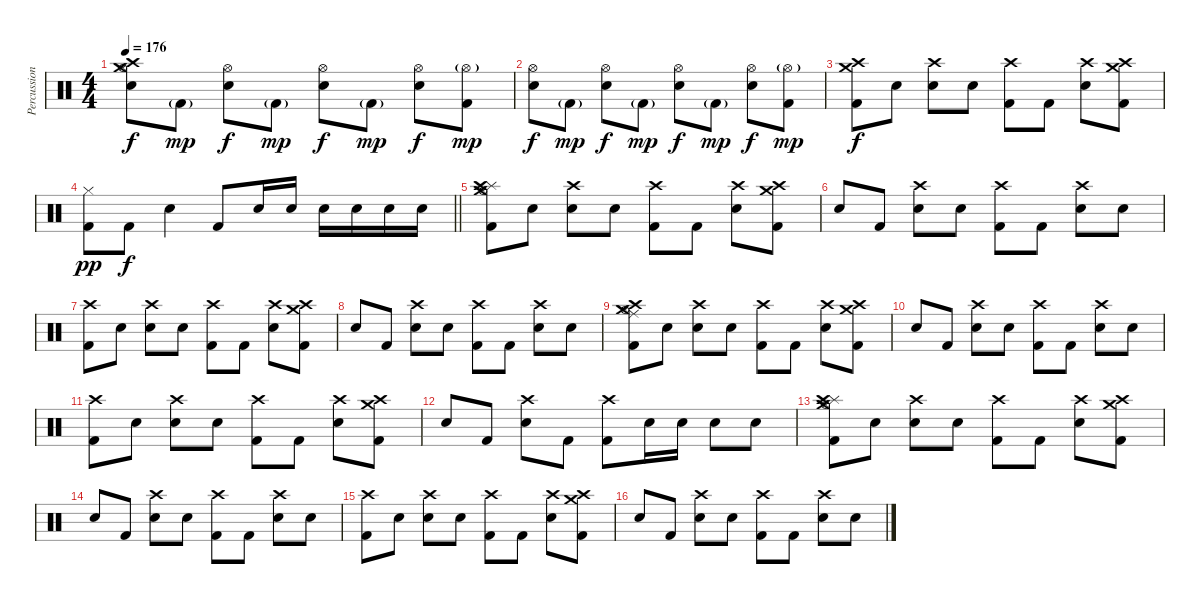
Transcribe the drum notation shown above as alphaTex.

\track ("Percussion" "Percussion") {instrument percussion}
\staff {score}
\articulation defaults
\ts (4 4)
\tempo 176
\clef neutral
\ks c
("Crash medium (hit)" "Crash high (hit)" "Hi-Hat (open)" "Electric Snare (hit)").8{dy f} "Kick (hit) 2"{g}.8{dy mp} ("Hi-Hat (open)" "Electric Snare (hit)").8{dy f} "Kick (hit) 2"{g}.8{dy mp} ("Hi-Hat (open)" "Electric Snare (hit)").8{dy f} "Kick (hit) 2"{g}.8{dy mp} ("Hi-Hat (open)" "Electric Snare (hit)").8{dy f} ("Hi-Hat (open)"{g} "Kick (hit) 2").8{dy mp} |
("Hi-Hat (open)" "Electric Snare (hit)").8{dy f} "Kick (hit) 2"{g}.8{dy mp} ("Hi-Hat (open)" "Electric Snare (hit)").8{dy f} "Kick (hit) 2"{g}.8{dy mp} ("Hi-Hat (open)" "Electric Snare (hit)").8{dy f} "Kick (hit) 2"{g}.8{dy mp} ("Hi-Hat (open)" "Electric Snare (hit)").8{dy f} ("Hi-Hat (open)"{g} "Kick (hit) 2").8{dy mp} |
("Crash medium (hit)" "Crash high (hit)" "Kick (hit) 2").8{dy f} "Snare (hit)"{x}.8 ("Crash high (hit)" "Electric Snare (hit)").8 "Snare (hit)"{x}.8 ("Crash high (hit)" "Kick (hit) 2").8 "Kick (hit) 2".8 ("Crash high (hit)" "Electric Snare (hit)").8 ("Crash high (hit)" "Crash medium (hit)" "Kick (hit) 2").8 |
\barLineRight lightlight
("Hi-Hat (closed)" "Kick (hit) 2").8{dy pp} "Kick (hit) 2".8{dy f} "Electric Snare (hit)".4 "Kick (hit) 2".8 "Electric Snare (hit)".16 "Electric Snare (hit)".16 "Electric Snare (hit)".16 "Electric Snare (hit)".16 "Electric Snare (hit)".16 "Electric Snare (hit)".16 |
("Splash (hit)" "Hi-Hat (open)" "Crash medium (hit)" "Crash high (hit)" "Kick (hit) 2").8 "Snare (hit)"{x}.8 ("Crash high (hit)" "Electric Snare (hit)").8 "Snare (hit)"{x}.8 ("Crash high (hit)" "Kick (hit) 2").8 "Kick (hit) 2".8 ("Crash high (hit)" "Electric Snare (hit)").8 ("Crash high (hit)" "Crash medium (hit)" "Kick (hit) 2").8 |
"Snare (hit)"{x}.8 "Kick (hit) 2".8 ("Crash high (hit)" "Electric Snare (hit)").8 "Snare (hit)"{x}.8 ("Crash high (hit)" "Kick (hit) 2").8 "Kick (hit) 2".8 ("Crash high (hit)" "Electric Snare (hit)").8 "Snare (hit)"{x}.8 |
("Crash high (hit)" "Kick (hit) 2").8 "Snare (hit)"{x}.8 ("Crash high (hit)" "Electric Snare (hit)").8 "Snare (hit)"{x}.8 ("Crash high (hit)" "Kick (hit) 2").8 "Kick (hit) 2".8 ("Crash high (hit)" "Electric Snare (hit)").8 ("Crash high (hit)" "Crash medium (hit)" "Kick (hit) 2").8 |
"Snare (hit)"{x}.8 "Kick (hit) 2".8 ("Crash high (hit)" "Electric Snare (hit)").8 "Snare (hit)"{x}.8 ("Crash high (hit)" "Kick (hit) 2").8 "Kick (hit) 2".8 ("Crash high (hit)" "Electric Snare (hit)").8 "Electric Snare (hit)".8 |
("Ride (middle)" "Hi-Hat (open)" "Crash medium (hit)" "Crash high (hit)" "Kick (hit) 2").8 "Snare (hit)"{x}.8 ("Crash high (hit)" "Electric Snare (hit)").8 "Snare (hit)"{x}.8 ("Crash high (hit)" "Kick (hit) 2").8 "Kick (hit) 2".8 ("Crash high (hit)" "Electric Snare (hit)").8 ("Crash high (hit)" "Crash medium (hit)" "Kick (hit) 2").8 |
"Snare (hit)"{x}.8 "Kick (hit) 2".8 ("Crash high (hit)" "Electric Snare (hit)").8 "Snare (hit)"{x}.8 ("Crash high (hit)" "Kick (hit) 2").8 "Kick (hit) 2".8 ("Crash high (hit)" "Electric Snare (hit)").8 "Snare (hit)"{x}.8 |
("Crash high (hit)" "Kick (hit) 2").8 "Snare (hit)"{x}.8 ("Crash high (hit)" "Electric Snare (hit)").8 "Snare (hit)"{x}.8 ("Crash high (hit)" "Kick (hit) 2").8 "Kick (hit) 2".8 ("Crash high (hit)" "Electric Snare (hit)").8 ("Crash high (hit)" "Crash medium (hit)" "Kick (hit) 2").8 |
"Snare (hit)"{x}.8 "Kick (hit) 2".8 ("Crash high (hit)" "Electric Snare (hit)").8 "Kick (hit) 2".8 ("Crash high (hit)" "Kick (hit) 2").8 "Electric Snare (hit)".16 "Electric Snare (hit)".16 "Electric Snare (hit)".8 "Electric Snare (hit)".8 |
("Splash (hit)" "Hi-Hat (open)" "Crash medium (hit)" "Crash high (hit)" "Kick (hit) 2").8 "Snare (hit)"{x}.8 ("Crash high (hit)" "Electric Snare (hit)").8 "Snare (hit)"{x}.8 ("Crash high (hit)" "Kick (hit) 2").8 "Kick (hit) 2".8 ("Crash high (hit)" "Electric Snare (hit)").8 ("Crash high (hit)" "Crash medium (hit)" "Kick (hit) 2").8 |
"Snare (hit)"{x}.8 "Kick (hit) 2".8 ("Crash high (hit)" "Electric Snare (hit)").8 "Snare (hit)"{x}.8 ("Crash high (hit)" "Kick (hit) 2").8 "Kick (hit) 2".8 ("Crash high (hit)" "Electric Snare (hit)").8 "Snare (hit)"{x}.8 |
("Crash high (hit)" "Kick (hit) 2").8 "Snare (hit)"{x}.8 ("Crash high (hit)" "Electric Snare (hit)").8 "Snare (hit)"{x}.8 ("Crash high (hit)" "Kick (hit) 2").8 "Kick (hit) 2".8 ("Crash high (hit)" "Electric Snare (hit)").8 ("Crash high (hit)" "Crash medium (hit)" "Kick (hit) 2").8 |
"Snare (hit)"{x}.8 "Kick (hit) 2".8 ("Crash high (hit)" "Electric Snare (hit)").8 "Snare (hit)"{x}.8 ("Crash high (hit)" "Kick (hit) 2").8 "Kick (hit) 2".8 ("Crash high (hit)" "Electric Snare (hit)").8 "Snare (hit)"{x}.8
